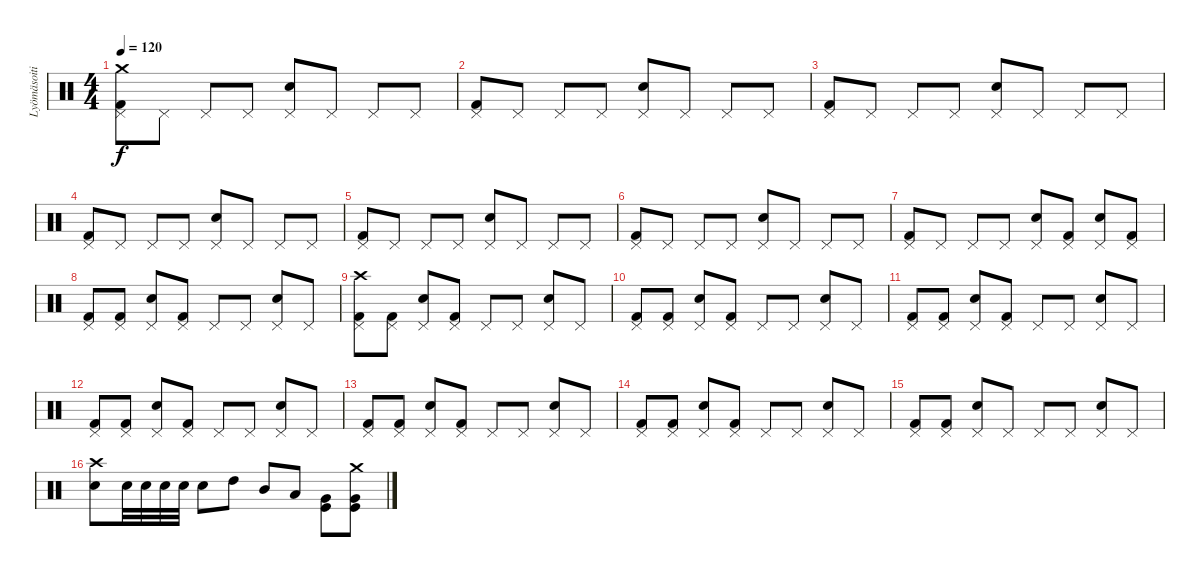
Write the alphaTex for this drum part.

\track ("Lyömäsoitin" "Lyömäsoiti") {instrument percussion}
\staff {score}
\articulation defaults
\ts (4 4)
\tempo 120
\clef neutral
\ks c
("Crash medium (hit)" "Pedal Hi-Hat (hit)" "Kick (hit) 2").8{dy f} "Pedal Hi-Hat (hit)".8 "Pedal Hi-Hat (hit)".8 "Pedal Hi-Hat (hit)".8 ("Pedal Hi-Hat (hit)" "Electric Snare (hit)").8 "Pedal Hi-Hat (hit)".8 "Pedal Hi-Hat (hit)".8 "Pedal Hi-Hat (hit)".8 |
("Pedal Hi-Hat (hit)" "Kick (hit) 2").8 "Pedal Hi-Hat (hit)".8 "Pedal Hi-Hat (hit)".8 "Pedal Hi-Hat (hit)".8 ("Pedal Hi-Hat (hit)" "Electric Snare (hit)").8 "Pedal Hi-Hat (hit)".8 "Pedal Hi-Hat (hit)".8 "Pedal Hi-Hat (hit)".8 |
("Pedal Hi-Hat (hit)" "Kick (hit) 2").8 "Pedal Hi-Hat (hit)".8 "Pedal Hi-Hat (hit)".8 "Pedal Hi-Hat (hit)".8 ("Pedal Hi-Hat (hit)" "Electric Snare (hit)").8 "Pedal Hi-Hat (hit)".8 "Pedal Hi-Hat (hit)".8 "Pedal Hi-Hat (hit)".8 |
("Pedal Hi-Hat (hit)" "Kick (hit) 2").8 "Pedal Hi-Hat (hit)".8 "Pedal Hi-Hat (hit)".8 "Pedal Hi-Hat (hit)".8 ("Pedal Hi-Hat (hit)" "Electric Snare (hit)").8 "Pedal Hi-Hat (hit)".8 "Pedal Hi-Hat (hit)".8 "Pedal Hi-Hat (hit)".8 |
("Pedal Hi-Hat (hit)" "Kick (hit) 2").8 "Pedal Hi-Hat (hit)".8 "Pedal Hi-Hat (hit)".8 "Pedal Hi-Hat (hit)".8 ("Pedal Hi-Hat (hit)" "Electric Snare (hit)").8 "Pedal Hi-Hat (hit)".8 "Pedal Hi-Hat (hit)".8 "Pedal Hi-Hat (hit)".8 |
("Pedal Hi-Hat (hit)" "Kick (hit) 2").8 "Pedal Hi-Hat (hit)".8 "Pedal Hi-Hat (hit)".8 "Pedal Hi-Hat (hit)".8 ("Pedal Hi-Hat (hit)" "Electric Snare (hit)").8 "Pedal Hi-Hat (hit)".8 "Pedal Hi-Hat (hit)".8 "Pedal Hi-Hat (hit)".8 |
("Pedal Hi-Hat (hit)" "Kick (hit) 2").8 "Pedal Hi-Hat (hit)".8 "Pedal Hi-Hat (hit)".8 "Pedal Hi-Hat (hit)".8 ("Pedal Hi-Hat (hit)" "Electric Snare (hit)").8 ("Pedal Hi-Hat (hit)" "Kick (hit) 2").8 ("Pedal Hi-Hat (hit)" "Electric Snare (hit)").8 ("Pedal Hi-Hat (hit)" "Kick (hit) 2").8 |
("Pedal Hi-Hat (hit)" "Kick (hit) 2").8 ("Pedal Hi-Hat (hit)" "Kick (hit) 2").8 ("Pedal Hi-Hat (hit)" "Electric Snare (hit)").8 ("Pedal Hi-Hat (hit)" "Kick (hit) 2").8 "Pedal Hi-Hat (hit)".8 "Pedal Hi-Hat (hit)".8 ("Pedal Hi-Hat (hit)" "Electric Snare (hit)").8 "Pedal Hi-Hat (hit)".8 |
("Crash high (hit)" "Pedal Hi-Hat (hit)" "Kick (hit) 2").8 ("Pedal Hi-Hat (hit)" "Kick (hit) 2").8 ("Pedal Hi-Hat (hit)" "Electric Snare (hit)").8 ("Pedal Hi-Hat (hit)" "Kick (hit) 2").8 "Pedal Hi-Hat (hit)".8 "Pedal Hi-Hat (hit)".8 ("Pedal Hi-Hat (hit)" "Electric Snare (hit)").8 "Pedal Hi-Hat (hit)".8 |
("Pedal Hi-Hat (hit)" "Kick (hit) 2").8 ("Pedal Hi-Hat (hit)" "Kick (hit) 2").8 ("Pedal Hi-Hat (hit)" "Electric Snare (hit)").8 ("Pedal Hi-Hat (hit)" "Kick (hit) 2").8 "Pedal Hi-Hat (hit)".8 "Pedal Hi-Hat (hit)".8 ("Pedal Hi-Hat (hit)" "Electric Snare (hit)").8 "Pedal Hi-Hat (hit)".8 |
("Pedal Hi-Hat (hit)" "Kick (hit) 2").8 ("Pedal Hi-Hat (hit)" "Kick (hit) 2").8 ("Pedal Hi-Hat (hit)" "Electric Snare (hit)").8 ("Pedal Hi-Hat (hit)" "Kick (hit) 2").8 "Pedal Hi-Hat (hit)".8 "Pedal Hi-Hat (hit)".8 ("Pedal Hi-Hat (hit)" "Electric Snare (hit)").8 "Pedal Hi-Hat (hit)".8 |
("Pedal Hi-Hat (hit)" "Kick (hit) 2").8 ("Pedal Hi-Hat (hit)" "Kick (hit) 2").8 ("Pedal Hi-Hat (hit)" "Electric Snare (hit)").8 ("Pedal Hi-Hat (hit)" "Kick (hit) 2").8 "Pedal Hi-Hat (hit)".8 "Pedal Hi-Hat (hit)".8 ("Pedal Hi-Hat (hit)" "Electric Snare (hit)").8 "Pedal Hi-Hat (hit)".8 |
("Pedal Hi-Hat (hit)" "Kick (hit) 2").8 ("Pedal Hi-Hat (hit)" "Kick (hit) 2").8 ("Pedal Hi-Hat (hit)" "Electric Snare (hit)").8 ("Pedal Hi-Hat (hit)" "Kick (hit) 2").8 "Pedal Hi-Hat (hit)".8 "Pedal Hi-Hat (hit)".8 ("Pedal Hi-Hat (hit)" "Electric Snare (hit)").8 "Pedal Hi-Hat (hit)".8 |
("Pedal Hi-Hat (hit)" "Kick (hit) 2").8 ("Pedal Hi-Hat (hit)" "Kick (hit) 2").8 ("Pedal Hi-Hat (hit)" "Electric Snare (hit)").8 ("Pedal Hi-Hat (hit)" "Kick (hit) 2").8 "Pedal Hi-Hat (hit)".8 "Pedal Hi-Hat (hit)".8 ("Pedal Hi-Hat (hit)" "Electric Snare (hit)").8 "Pedal Hi-Hat (hit)".8 |
("Pedal Hi-Hat (hit)" "Kick (hit) 2").8 ("Pedal Hi-Hat (hit)" "Kick (hit) 2").8 ("Pedal Hi-Hat (hit)" "Electric Snare (hit)").8 "Pedal Hi-Hat (hit)".8 "Pedal Hi-Hat (hit)".8 "Pedal Hi-Hat (hit)".8 ("Pedal Hi-Hat (hit)" "Electric Snare (hit)").8 "Pedal Hi-Hat (hit)".8 |
("Crash high (hit)" "Snare (hit) 2").8 "Snare (hit) 2".32 "Snare (hit) 2".32 "Snare (hit) 2".32 "Snare (hit) 2".32 "Snare (hit) 2".8 "High Tom (hit)".8 "Mid Tom (hit)".8 "Low Tom (hit)".8 ("Very Low Tom (hit)" "Kick (hit)").8 ("Crash medium (hit)" "Very Low Tom (hit)" "Kick (hit)").8
